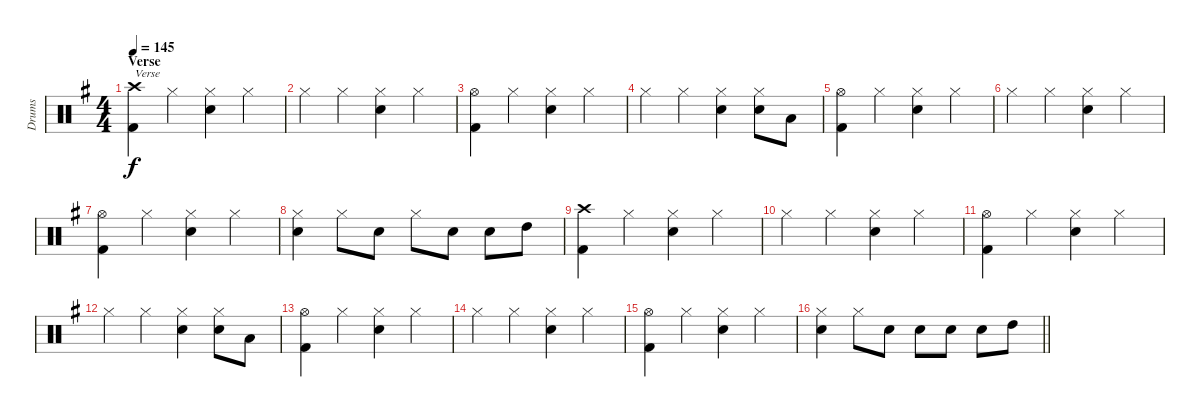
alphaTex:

\track ("Drums" "Drums") {instrument percussion}
\staff {score}
\articulation defaults
\ts (4 4)
\section ("" "Verse")
\tempo 145
\clef neutral
\ks g
("Crash high (hit)" "Kick (hit) 2").4{txt "Verse" dy f} "Hi-Hat (closed)".4 ("Hi-Hat (closed)" "Snare (hit) 2").4 "Hi-Hat (closed)".4 |
"Hi-Hat (closed)".4 "Hi-Hat (closed)".4 ("Hi-Hat (closed)" "Snare (hit) 2").4 "Hi-Hat (closed)".4 |
("Hi-Hat (open)" "Kick (hit) 2").4 "Hi-Hat (closed)".4 ("Hi-Hat (closed)" "Snare (hit) 2").4 "Hi-Hat (closed)".4 |
"Hi-Hat (closed)".4 "Hi-Hat (closed)".4 ("Hi-Hat (closed)" "Snare (hit) 2").4 ("Hi-Hat (closed)" "Snare (hit) 2").8 "Low Tom (hit)".8 |
("Hi-Hat (open)" "Kick (hit) 2").4 "Hi-Hat (closed)".4 ("Hi-Hat (closed)" "Snare (hit) 2").4 "Hi-Hat (closed)".4 |
"Hi-Hat (closed)".4 "Hi-Hat (closed)".4 ("Hi-Hat (closed)" "Snare (hit) 2").4 "Hi-Hat (closed)".4 |
("Hi-Hat (open)" "Kick (hit) 2").4 "Hi-Hat (closed)".4 ("Hi-Hat (closed)" "Snare (hit) 2").4 "Hi-Hat (closed)".4 |
("Hi-Hat (closed)" "Electric Snare (hit)").4 "Hi-Hat (closed)".8 "Electric Snare (hit)".8 "Hi-Hat (closed)".8 "Snare (hit) 2".8 "Snare (hit) 2".8 "High Tom (hit)".8 |
("Crash high (hit)" "Kick (hit) 2").4 "Hi-Hat (closed)".4 ("Hi-Hat (closed)" "Snare (hit) 2").4 "Hi-Hat (closed)".4 |
"Hi-Hat (closed)".4 "Hi-Hat (closed)".4 ("Hi-Hat (closed)" "Snare (hit) 2").4 "Hi-Hat (closed)".4 |
("Hi-Hat (open)" "Kick (hit) 2").4 "Hi-Hat (closed)".4 ("Hi-Hat (closed)" "Snare (hit) 2").4 "Hi-Hat (closed)".4 |
"Hi-Hat (closed)".4 "Hi-Hat (closed)".4 ("Hi-Hat (closed)" "Snare (hit) 2").4 ("Hi-Hat (closed)" "Snare (hit) 2").8 "Low Tom (hit)".8 |
("Hi-Hat (open)" "Kick (hit) 2").4 "Hi-Hat (closed)".4 ("Hi-Hat (closed)" "Snare (hit) 2").4 "Hi-Hat (closed)".4 |
"Hi-Hat (closed)".4 "Hi-Hat (closed)".4 ("Hi-Hat (closed)" "Snare (hit) 2").4 "Hi-Hat (closed)".4 |
("Hi-Hat (open)" "Kick (hit) 2").4 "Hi-Hat (closed)".4 ("Hi-Hat (closed)" "Snare (hit) 2").4 "Hi-Hat (closed)".4 |
\barLineRight lightlight
("Hi-Hat (closed)" "Electric Snare (hit)").4 "Hi-Hat (closed)".8 "Electric Snare (hit)".8 "Electric Snare (hit)".8 "Snare (hit) 2".8 "Snare (hit) 2".8 "High Tom (hit)".8
